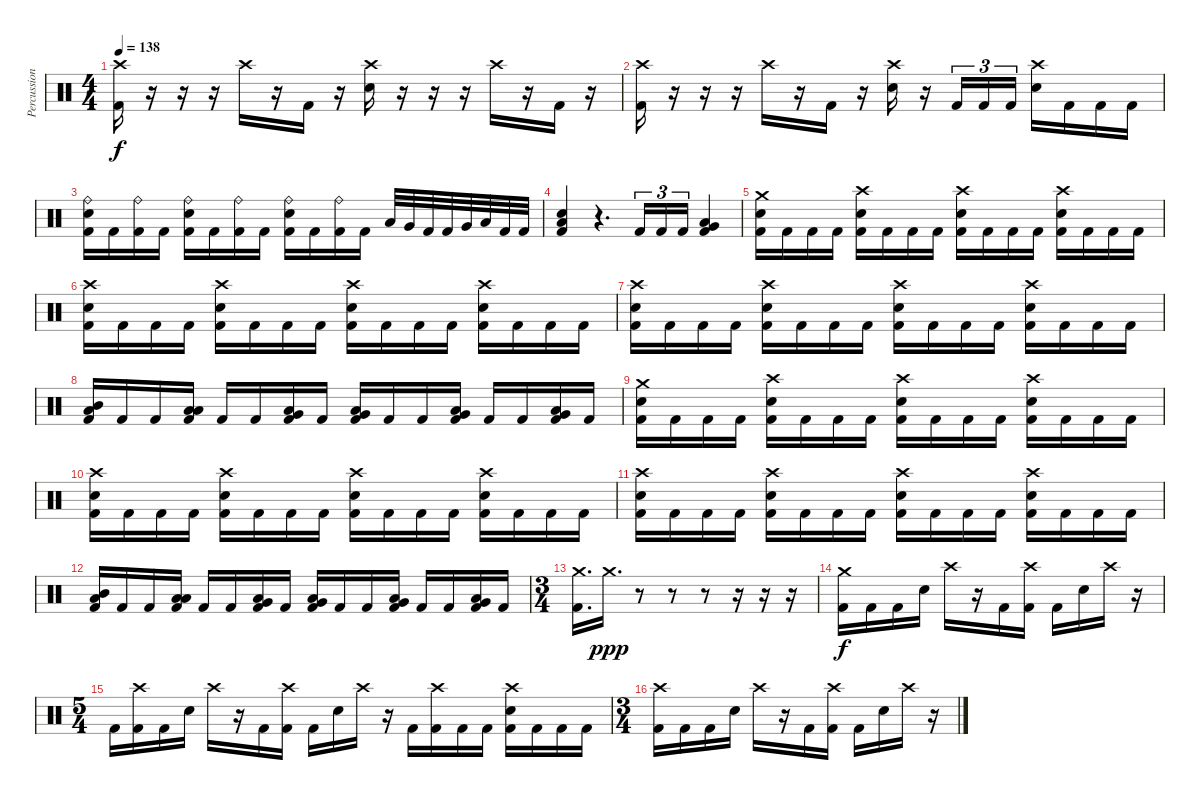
\track ("Percussion" "Percussion") {instrument percussion}
\staff {score}
\articulation defaults
\ts (4 4)
\tempo 138
\clef neutral
\ks c
("Crash high (hit)" "Kick (hit) 2").16{dy f} r.16 r.16 r.16 "Crash high (hit)".16 r.16 "Kick (hit) 2".16 r.16 ("Crash high (hit)" "Electric Snare (hit)").16 r.16 r.16 r.16 "Crash high (hit)".16 r.16 "Kick (hit) 2".16 r.16 |
("Crash high (hit)" "Kick (hit) 2").16 r.16 r.16 r.16 "Crash high (hit)".16 r.16 "Kick (hit) 2".16 r.16 ("Crash high (hit)" "Electric Snare (hit)").16 r.16 "Kick (hit) 2".16{tu (3 2)} "Kick (hit) 2".16{tu (3 2)} "Kick (hit) 2".16{tu (3 2)} ("Crash high (hit)" "Electric Snare (hit)").16 "Kick (hit) 2".16 "Kick (hit) 2".16 "Kick (hit) 2".16 |
("Ride (bell)" "Electric Snare (hit)" "Kick (hit) 2").16 "Kick (hit) 2".16 ("Ride (bell)" "Kick (hit) 2").16 "Kick (hit) 2".16 ("Ride (bell)" "Electric Snare (hit)" "Kick (hit) 2").16 "Kick (hit) 2".16 ("Ride (bell)" "Kick (hit) 2").16 "Kick (hit) 2".16 ("Ride (bell)" "Electric Snare (hit)" "Kick (hit) 2").16 "Kick (hit) 2".16 ("Ride (bell)" "Kick (hit) 2").16 "Kick (hit) 2".16 "Low Tom (hit)".32 "Very Low Tom (hit)".32 "Kick (hit) 2".32 "Kick (hit) 2".32 "Very Low Tom (hit)".32 "Low Floor Tom (hit)".32 "Kick (hit) 2".32 "Kick (hit) 2".32 |
("Electric Snare (hit)" "Low Floor Tom (hit)" "Kick (hit) 2").4 r.4{d} "Kick (hit) 2".16{tu (3 2)} "Kick (hit) 2".16{tu (3 2)} "Kick (hit) 2".16{tu (3 2)} ("Very Low Tom (hit)" "Low Floor Tom (hit)" "Kick (hit) 2").4 |
("Crash medium (hit)" "Electric Snare (hit)" "Kick (hit) 2").16 "Kick (hit) 2".16 "Kick (hit) 2".16 "Kick (hit) 2".16 ("Crash high (hit)" "Electric Snare (hit)" "Kick (hit) 2").16 "Kick (hit) 2".16 "Kick (hit) 2".16 "Kick (hit) 2".16 ("Crash high (hit)" "Electric Snare (hit)" "Kick (hit) 2").16 "Kick (hit) 2".16 "Kick (hit) 2".16 "Kick (hit) 2".16 ("Crash high (hit)" "Electric Snare (hit)" "Kick (hit) 2").16 "Kick (hit) 2".16 "Kick (hit) 2".16 "Kick (hit) 2".16 |
("Crash high (hit)" "Electric Snare (hit)" "Kick (hit) 2").16 "Kick (hit) 2".16 "Kick (hit) 2".16 "Kick (hit) 2".16 ("Crash high (hit)" "Electric Snare (hit)" "Kick (hit) 2").16 "Kick (hit) 2".16 "Kick (hit) 2".16 "Kick (hit) 2".16 ("Crash high (hit)" "Electric Snare (hit)" "Kick (hit) 2").16 "Kick (hit) 2".16 "Kick (hit) 2".16 "Kick (hit) 2".16 ("Crash high (hit)" "Electric Snare (hit)" "Kick (hit) 2").16 "Kick (hit) 2".16 "Kick (hit) 2".16 "Kick (hit) 2".16 |
("Crash high (hit)" "Electric Snare (hit)" "Kick (hit) 2").16 "Kick (hit) 2".16 "Kick (hit) 2".16 "Kick (hit) 2".16 ("Crash high (hit)" "Electric Snare (hit)" "Kick (hit) 2").16 "Kick (hit) 2".16 "Kick (hit) 2".16 "Kick (hit) 2".16 ("Crash high (hit)" "Electric Snare (hit)" "Kick (hit) 2").16 "Kick (hit) 2".16 "Kick (hit) 2".16 "Kick (hit) 2".16 ("Crash high (hit)" "Electric Snare (hit)" "Kick (hit) 2").16 "Kick (hit) 2".16 "Kick (hit) 2".16 "Kick (hit) 2".16 |
("Mid Tom (hit)" "Low Floor Tom (hit)" "Kick (hit) 2").16 "Kick (hit) 2".16 "Kick (hit) 2".16 ("Low Tom (hit)" "Low Floor Tom (hit)" "Kick (hit) 2").16 "Kick (hit) 2".16 "Kick (hit) 2".16 ("Very Low Tom (hit)" "Low Floor Tom (hit)" "Kick (hit) 2").16 "Kick (hit) 2".16 ("Very Low Tom (hit)" "Low Floor Tom (hit)" "Kick (hit) 2").16 "Kick (hit) 2".16 "Kick (hit) 2".16 ("Very Low Tom (hit)" "Low Floor Tom (hit)" "Kick (hit) 2").16 "Kick (hit) 2".16 "Kick (hit) 2".16 ("Very Low Tom (hit)" "Low Floor Tom (hit)" "Kick (hit) 2").16 "Kick (hit) 2".16 |
("Crash medium (hit)" "Electric Snare (hit)" "Kick (hit) 2").16 "Kick (hit) 2".16 "Kick (hit) 2".16 "Kick (hit) 2".16 ("Crash high (hit)" "Electric Snare (hit)" "Kick (hit) 2").16 "Kick (hit) 2".16 "Kick (hit) 2".16 "Kick (hit) 2".16 ("Crash high (hit)" "Electric Snare (hit)" "Kick (hit) 2").16 "Kick (hit) 2".16 "Kick (hit) 2".16 "Kick (hit) 2".16 ("Crash high (hit)" "Electric Snare (hit)" "Kick (hit) 2").16 "Kick (hit) 2".16 "Kick (hit) 2".16 "Kick (hit) 2".16 |
("Crash high (hit)" "Electric Snare (hit)" "Kick (hit) 2").16 "Kick (hit) 2".16 "Kick (hit) 2".16 "Kick (hit) 2".16 ("Crash high (hit)" "Electric Snare (hit)" "Kick (hit) 2").16 "Kick (hit) 2".16 "Kick (hit) 2".16 "Kick (hit) 2".16 ("Crash high (hit)" "Electric Snare (hit)" "Kick (hit) 2").16 "Kick (hit) 2".16 "Kick (hit) 2".16 "Kick (hit) 2".16 ("Crash high (hit)" "Electric Snare (hit)" "Kick (hit) 2").16 "Kick (hit) 2".16 "Kick (hit) 2".16 "Kick (hit) 2".16 |
("Crash high (hit)" "Electric Snare (hit)" "Kick (hit) 2").16 "Kick (hit) 2".16 "Kick (hit) 2".16 "Kick (hit) 2".16 ("Crash high (hit)" "Electric Snare (hit)" "Kick (hit) 2").16 "Kick (hit) 2".16 "Kick (hit) 2".16 "Kick (hit) 2".16 ("Crash high (hit)" "Electric Snare (hit)" "Kick (hit) 2").16 "Kick (hit) 2".16 "Kick (hit) 2".16 "Kick (hit) 2".16 ("Crash high (hit)" "Electric Snare (hit)" "Kick (hit) 2").16 "Kick (hit) 2".16 "Kick (hit) 2".16 "Kick (hit) 2".16 |
("Mid Tom (hit)" "Low Floor Tom (hit)" "Kick (hit) 2").16 "Kick (hit) 2".16 "Kick (hit) 2".16 ("Low Tom (hit)" "Low Floor Tom (hit)" "Kick (hit) 2").16 "Kick (hit) 2".16 "Kick (hit) 2".16 ("Very Low Tom (hit)" "Low Floor Tom (hit)" "Kick (hit) 2").16 "Kick (hit) 2".16 ("Very Low Tom (hit)" "Low Floor Tom (hit)" "Kick (hit) 2").16 "Kick (hit) 2".16 "Kick (hit) 2".16 ("Very Low Tom (hit)" "Low Floor Tom (hit)" "Kick (hit) 2").16 "Kick (hit) 2".16 "Kick (hit) 2".16 ("Very Low Tom (hit)" "Low Floor Tom (hit)" "Kick (hit) 2").16 "Kick (hit) 2".16 |
\ts (3 4)
("Crash medium (hit)" "Kick (hit) 2").16{d} "Crash medium (hit)".16{d dy ppp} r.8 r.8 r.8 r.16 r.16 r.16 |
("Crash medium (hit)" "Kick (hit) 2").16{dy f} "Kick (hit) 2".16 "Kick (hit) 2".16 "Electric Snare (hit)".16 "Crash high (hit)".16 r.16 "Kick (hit) 2".16 ("Crash high (hit)" "Kick (hit) 2").16 "Kick (hit) 2".16 "Electric Snare (hit)".16 "Crash high (hit)".16 r.16 |
\ts (5 4)
"Kick (hit) 2".16 ("Crash high (hit)" "Kick (hit) 2").16 "Kick (hit) 2".16 "Electric Snare (hit)".16 "Crash high (hit)".16 r.16 "Kick (hit) 2".16 ("Crash high (hit)" "Kick (hit) 2").16 "Kick (hit) 2".16 "Electric Snare (hit)".16 "Crash high (hit)".16 r.16 "Kick (hit) 2".16 ("Crash high (hit)" "Kick (hit) 2").16 "Kick (hit) 2".16 "Kick (hit) 2".16 ("Crash high (hit)" "Electric Snare (hit)" "Kick (hit) 2").16 "Kick (hit) 2".16 "Kick (hit) 2".16 "Kick (hit) 2".16 |
\ts (3 4)
("Crash high (hit)" "Kick (hit) 2").16 "Kick (hit) 2".16 "Kick (hit) 2".16 "Electric Snare (hit)".16 "Crash high (hit)".16 r.16 "Kick (hit) 2".16 ("Crash high (hit)" "Kick (hit) 2").16 "Kick (hit) 2".16 "Electric Snare (hit)".16 "Crash high (hit)".16 r.16
